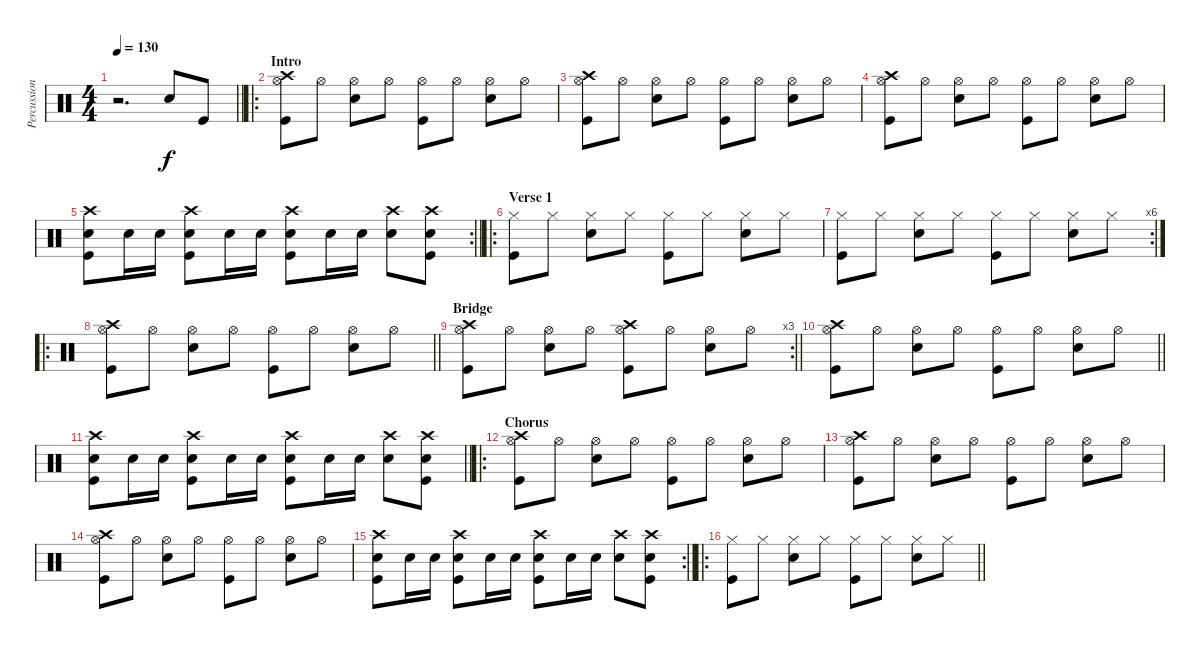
\track ("Percussion" "Percussion") {instrument percussion}
\staff {score}
\articulation defaults
\ts (4 4)
\tempo 130
\clef neutral
\barLineRight lightlight
\ks c
r.2{d dy f} "Snare (hit) 2".8 "Kick (hit)".8 |
\ro
\section ("" "Intro")
("Crash high (hit)" "Hi-Hat (open)" "Kick (hit)").8 "Hi-Hat (open)".8 ("Hi-Hat (open)" "Snare (hit) 2").8 "Hi-Hat (open)".8 ("Hi-Hat (open)" "Kick (hit)").8 "Hi-Hat (open)".8 ("Hi-Hat (open)" "Snare (hit) 2").8 "Hi-Hat (open)".8 |
("Crash high (hit)" "Hi-Hat (open)" "Kick (hit)").8 "Hi-Hat (open)".8 ("Hi-Hat (open)" "Snare (hit) 2").8 "Hi-Hat (open)".8 ("Hi-Hat (open)" "Kick (hit)").8 "Hi-Hat (open)".8 ("Hi-Hat (open)" "Snare (hit) 2").8 "Hi-Hat (open)".8 |
("Crash high (hit)" "Hi-Hat (open)" "Kick (hit)").8 "Hi-Hat (open)".8 ("Hi-Hat (open)" "Snare (hit) 2").8 "Hi-Hat (open)".8 ("Hi-Hat (open)" "Kick (hit)").8 "Hi-Hat (open)".8 ("Hi-Hat (open)" "Snare (hit) 2").8 "Hi-Hat (open)".8 |
\rc 2
\barLineRight lightlight
("Crash high (hit)" "Snare (hit) 2" "Kick (hit)").8 "Snare (hit) 2".16 "Snare (hit) 2".16 ("Crash high (hit)" "Snare (hit) 2" "Kick (hit)").8 "Snare (hit) 2".16 "Snare (hit) 2".16 ("Crash high (hit)" "Snare (hit) 2" "Kick (hit)").8 "Snare (hit) 2".16 "Snare (hit) 2".16 ("Crash high (hit)" "Snare (hit) 2").8 ("Crash high (hit)" "Snare (hit) 2" "Kick (hit)").8 |
\ro
\section ("" "Verse 1")
("Hi-Hat (closed)" "Kick (hit)").8 "Hi-Hat (closed)".8 ("Hi-Hat (closed)" "Snare (hit) 2").8 "Hi-Hat (closed)".8 ("Hi-Hat (closed)" "Kick (hit)").8 "Hi-Hat (closed)".8 ("Hi-Hat (closed)" "Snare (hit) 2").8 "Hi-Hat (closed)".8 |
\rc 6
("Hi-Hat (closed)" "Kick (hit)").8 "Hi-Hat (closed)".8 ("Hi-Hat (closed)" "Snare (hit) 2").8 "Hi-Hat (closed)".8 ("Hi-Hat (closed)" "Kick (hit)").8 "Hi-Hat (closed)".8 ("Hi-Hat (closed)" "Snare (hit) 2").8 "Hi-Hat (closed)".8 |
\ro
\barLineRight lightlight
("Crash high (hit)" "Hi-Hat (open)" "Kick (hit)").8 "Hi-Hat (open)".8 ("Hi-Hat (open)" "Snare (hit) 2").8 "Hi-Hat (open)".8 ("Hi-Hat (open)" "Kick (hit)").8 "Hi-Hat (open)".8 ("Hi-Hat (open)" "Snare (hit) 2").8 "Hi-Hat (open)".8 |
\rc 3
\section ("" "Bridge")
\barLineRight lightlight
("Crash high (hit)" "Hi-Hat (open)" "Kick (hit)").8 "Hi-Hat (open)".8 ("Hi-Hat (open)" "Snare (hit) 2").8 "Hi-Hat (open)".8 ("Crash high (hit)" "Hi-Hat (open)" "Kick (hit)").8 "Hi-Hat (open)".8 ("Hi-Hat (open)" "Snare (hit) 2").8 "Hi-Hat (open)".8 |
\barLineRight lightlight
("Crash high (hit)" "Hi-Hat (open)" "Kick (hit)").8 "Hi-Hat (open)".8 ("Hi-Hat (open)" "Snare (hit) 2").8 "Hi-Hat (open)".8 ("Hi-Hat (open)" "Kick (hit)").8 "Hi-Hat (open)".8 ("Hi-Hat (open)" "Snare (hit) 2").8 "Hi-Hat (open)".8 |
\barLineRight lightlight
("Crash high (hit)" "Snare (hit) 2" "Kick (hit)").8 "Snare (hit) 2".16 "Snare (hit) 2".16 ("Crash high (hit)" "Snare (hit) 2" "Kick (hit)").8 "Snare (hit) 2".16 "Snare (hit) 2".16 ("Crash high (hit)" "Snare (hit) 2" "Kick (hit)").8 "Snare (hit) 2".16 "Snare (hit) 2".16 ("Crash high (hit)" "Snare (hit) 2").8 ("Crash high (hit)" "Snare (hit) 2" "Kick (hit)").8 |
\ro
\section ("" "Chorus")
("Crash high (hit)" "Hi-Hat (open)" "Kick (hit)").8 "Hi-Hat (open)".8 ("Hi-Hat (open)" "Snare (hit) 2").8 "Hi-Hat (open)".8 ("Hi-Hat (open)" "Kick (hit)").8 "Hi-Hat (open)".8 ("Hi-Hat (open)" "Snare (hit) 2").8 "Hi-Hat (open)".8 |
("Crash high (hit)" "Hi-Hat (open)" "Kick (hit)").8 "Hi-Hat (open)".8 ("Hi-Hat (open)" "Snare (hit) 2").8 "Hi-Hat (open)".8 ("Hi-Hat (open)" "Kick (hit)").8 "Hi-Hat (open)".8 ("Hi-Hat (open)" "Snare (hit) 2").8 "Hi-Hat (open)".8 |
("Crash high (hit)" "Hi-Hat (open)" "Kick (hit)").8 "Hi-Hat (open)".8 ("Hi-Hat (open)" "Snare (hit) 2").8 "Hi-Hat (open)".8 ("Hi-Hat (open)" "Kick (hit)").8 "Hi-Hat (open)".8 ("Hi-Hat (open)" "Snare (hit) 2").8 "Hi-Hat (open)".8 |
\rc 2
\barLineRight lightlight
("Crash high (hit)" "Snare (hit) 2" "Kick (hit)").8 "Snare (hit) 2".16 "Snare (hit) 2".16 ("Crash high (hit)" "Snare (hit) 2" "Kick (hit)").8 "Snare (hit) 2".16 "Snare (hit) 2".16 ("Crash high (hit)" "Snare (hit) 2" "Kick (hit)").8 "Snare (hit) 2".16 "Snare (hit) 2".16 ("Crash high (hit)" "Snare (hit) 2").8 ("Crash high (hit)" "Snare (hit) 2" "Kick (hit)").8 |
\ro
\barLineRight lightlight
("Hi-Hat (closed)" "Kick (hit)").8 "Hi-Hat (closed)".8 ("Hi-Hat (closed)" "Snare (hit) 2").8 "Hi-Hat (closed)".8 ("Hi-Hat (closed)" "Kick (hit)").8 "Hi-Hat (closed)".8 ("Hi-Hat (closed)" "Snare (hit) 2").8 "Hi-Hat (closed)".8
